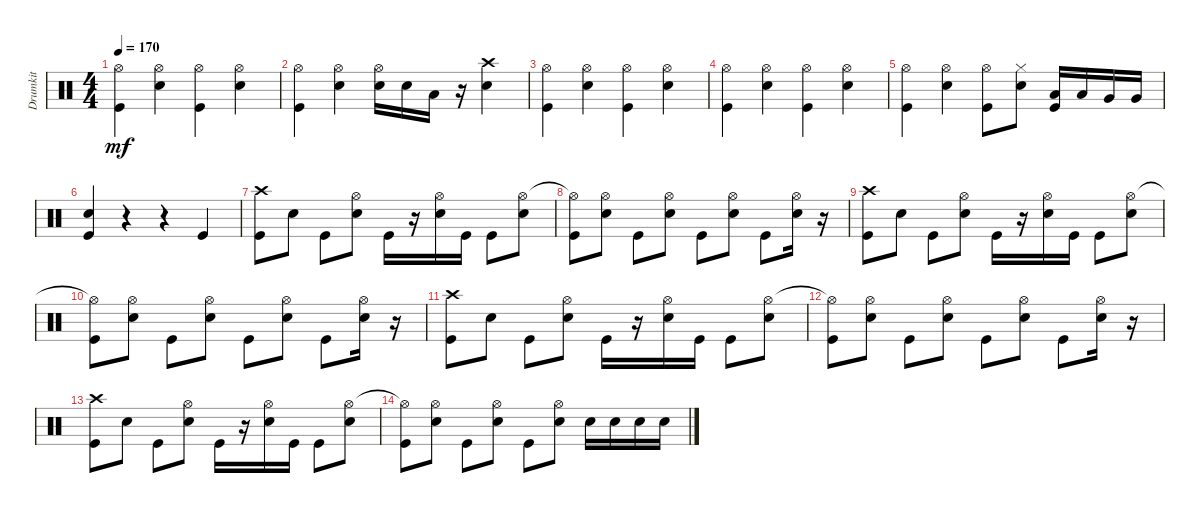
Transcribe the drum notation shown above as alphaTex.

\track ("Drumkit" "Drumkit") {instrument percussion}
\staff {score}
\articulation defaults
\ts (4 4)
\tempo 170
\clef neutral
\ks c
("Kick (hit)" "Hi-Hat (open)").4{dy mf} ("Snare (hit) 2" "Hi-Hat (open)").4 ("Kick (hit)" "Hi-Hat (open)").4 ("Snare (hit) 2" "Hi-Hat (open)").4 |
("Kick (hit)" "Hi-Hat (open)").4 ("Snare (hit) 2" "Hi-Hat (open)").4 ("Snare (hit) 2" "Hi-Hat (open)").16 "Snare (hit) 2".16 "Low Tom (hit)".16 r.16 ("Crash high (hit)" "Snare (hit) 2").4 |
("Kick (hit)" "Hi-Hat (open)").4 ("Snare (hit) 2" "Hi-Hat (open)").4 ("Kick (hit)" "Hi-Hat (open)").4 ("Snare (hit) 2" "Hi-Hat (open)").4 |
("Kick (hit)" "Hi-Hat (open)").4 ("Snare (hit) 2" "Hi-Hat (open)").4 ("Kick (hit)" "Hi-Hat (open)").4 ("Snare (hit) 2" "Hi-Hat (open)").4 |
("Kick (hit)" "Hi-Hat (open)").4 ("Snare (hit) 2" "Hi-Hat (open)").4 ("Kick (hit)" "Hi-Hat (open)").8 ("Hi-Hat (closed)" "Snare (hit) 2").8 ("Low Tom (hit)" "Kick (hit)").16 "Low Tom (hit)".16 "Very Low Tom (hit)".16 "Very Low Tom (hit)".16 |
("Snare (hit) 2" "Kick (hit)").4 r.4 r.4 "Kick (hit)".4 |
("Crash high (hit)" "Kick (hit)").8 "Snare (hit) 2".8 "Kick (hit)".8 ("Snare (hit) 2" "Hi-Hat (open)").8 "Kick (hit)".16 r.16 ("Snare (hit) 2" "Hi-Hat (open)").16 "Kick (hit)".16 "Kick (hit)".8 ("Snare (hit) 2" "Hi-Hat (open)").8 |
("Kick (hit)" "Hi-Hat (open)"{t}).8 ("Snare (hit) 2" "Hi-Hat (open)").8 "Kick (hit)".8 ("Snare (hit) 2" "Hi-Hat (open)").8 "Kick (hit)".8 ("Snare (hit) 2" "Hi-Hat (open)").8 "Kick (hit)".8 ("Snare (hit) 2" "Hi-Hat (open)").16 r.16 |
("Crash high (hit)" "Kick (hit)").8 "Snare (hit) 2".8 "Kick (hit)".8 ("Snare (hit) 2" "Hi-Hat (open)").8 "Kick (hit)".16 r.16 ("Snare (hit) 2" "Hi-Hat (open)").16 "Kick (hit)".16 "Kick (hit)".8 ("Snare (hit) 2" "Hi-Hat (open)").8 |
("Kick (hit)" "Hi-Hat (open)"{t}).8 ("Snare (hit) 2" "Hi-Hat (open)").8 "Kick (hit)".8 ("Snare (hit) 2" "Hi-Hat (open)").8 "Kick (hit)".8 ("Snare (hit) 2" "Hi-Hat (open)").8 "Kick (hit)".8 ("Snare (hit) 2" "Hi-Hat (open)").16 r.16 |
("Crash high (hit)" "Kick (hit)").8 "Snare (hit) 2".8 "Kick (hit)".8 ("Snare (hit) 2" "Hi-Hat (open)").8 "Kick (hit)".16 r.16 ("Snare (hit) 2" "Hi-Hat (open)").16 "Kick (hit)".16 "Kick (hit)".8 ("Snare (hit) 2" "Hi-Hat (open)").8 |
("Kick (hit)" "Hi-Hat (open)"{t}).8 ("Snare (hit) 2" "Hi-Hat (open)").8 "Kick (hit)".8 ("Snare (hit) 2" "Hi-Hat (open)").8 "Kick (hit)".8 ("Snare (hit) 2" "Hi-Hat (open)").8 "Kick (hit)".8 ("Snare (hit) 2" "Hi-Hat (open)").16 r.16 |
("Crash high (hit)" "Kick (hit)").8 "Snare (hit) 2".8 "Kick (hit)".8 ("Snare (hit) 2" "Hi-Hat (open)").8 "Kick (hit)".16 r.16 ("Snare (hit) 2" "Hi-Hat (open)").16 "Kick (hit)".16 "Kick (hit)".8 ("Snare (hit) 2" "Hi-Hat (open)").8 |
("Kick (hit)" "Hi-Hat (open)"{t}).8 ("Snare (hit) 2" "Hi-Hat (open)").8 "Kick (hit)".8 ("Snare (hit) 2" "Hi-Hat (open)").8 "Kick (hit)".8 ("Snare (hit) 2" "Hi-Hat (open)").8 "Snare (hit) 2".16 "Snare (hit) 2".16 "Snare (hit) 2".16 "Snare (hit) 2".16
